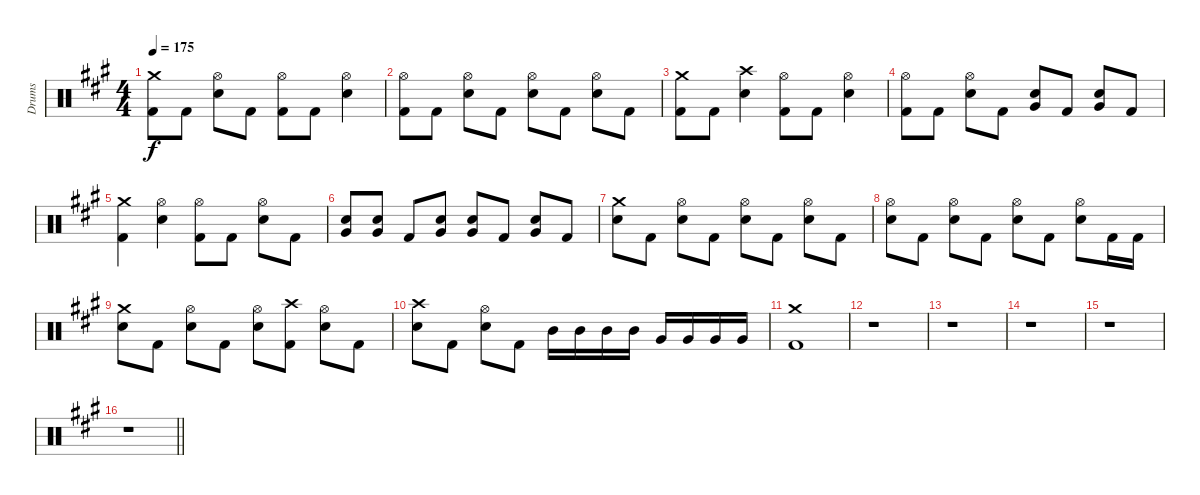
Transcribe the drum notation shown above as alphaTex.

\track ("Drums" "Drums") {instrument percussion}
\staff {score}
\articulation defaults
\ts (4 4)
\tempo 175
\clef neutral
\ks f#minor
("Crash medium (hit)" "Kick (hit) 2").8{dy f} "Kick (hit) 2".8 ("Hi-Hat (open)" "Electric Snare (hit)").8 "Kick (hit) 2".8 ("Hi-Hat (open)" "Kick (hit) 2").8 "Kick (hit) 2".8 ("Hi-Hat (open)" "Electric Snare (hit)").4 |
("Hi-Hat (open)" "Kick (hit) 2").8 "Kick (hit) 2".8 ("Hi-Hat (open)" "Electric Snare (hit)").8 "Kick (hit) 2".8 ("Hi-Hat (open)" "Electric Snare (hit)").8 "Kick (hit) 2".8 ("Hi-Hat (open)" "Electric Snare (hit)").8 "Kick (hit) 2".8 |
("Crash medium (hit)" "Kick (hit) 2").8 "Kick (hit) 2".8 ("Crash high (hit)" "Electric Snare (hit)").4 ("Hi-Hat (open)" "Kick (hit) 2").8 "Kick (hit) 2".8 ("Hi-Hat (open)" "Electric Snare (hit)").4 |
("Hi-Hat (open)" "Kick (hit) 2").8 "Kick (hit) 2".8 ("Hi-Hat (open)" "Electric Snare (hit)").8 "Kick (hit) 2".8 ("Electric Snare (hit)" "Very Low Tom (hit)").8 "Kick (hit) 2".8 ("Electric Snare (hit)" "Very Low Tom (hit)").8 "Kick (hit) 2".8 |
("Crash medium (hit)" "Kick (hit) 2").4 ("Hi-Hat (open)" "Electric Snare (hit)").4 ("Hi-Hat (open)" "Kick (hit) 2").8 "Kick (hit) 2".8 ("Hi-Hat (open)" "Electric Snare (hit)").8 "Kick (hit) 2".8 |
("Electric Snare (hit)" "Very Low Tom (hit)").8 ("Electric Snare (hit)" "Very Low Tom (hit)").8 "Kick (hit) 2".8 ("Electric Snare (hit)" "Very Low Tom (hit)").8 ("Electric Snare (hit)" "Very Low Tom (hit)").8 "Kick (hit) 2".8 ("Electric Snare (hit)" "Very Low Tom (hit)").8 "Kick (hit) 2".8 |
("Crash medium (hit)" "Electric Snare (hit)").8 "Kick (hit) 2".8 ("Hi-Hat (open)" "Electric Snare (hit)").8 "Kick (hit) 2".8 ("Hi-Hat (open)" "Electric Snare (hit)").8 "Kick (hit) 2".8 ("Hi-Hat (open)" "Electric Snare (hit)").8 "Kick (hit) 2".8 |
("Hi-Hat (open)" "Electric Snare (hit)").8 "Kick (hit) 2".8 ("Hi-Hat (open)" "Electric Snare (hit)").8 "Kick (hit) 2".8 ("Hi-Hat (open)" "Electric Snare (hit)").8 "Kick (hit) 2".8 ("Hi-Hat (open)" "Electric Snare (hit)").8 "Kick (hit) 2".16 "Kick (hit) 2".16 |
("Crash medium (hit)" "Electric Snare (hit)").8 "Kick (hit) 2".8 ("Hi-Hat (open)" "Electric Snare (hit)").8 "Kick (hit) 2".8 ("Hi-Hat (open)" "Electric Snare (hit)").8 ("Crash high (hit)" "Kick (hit) 2").8 ("Hi-Hat (open)" "Electric Snare (hit)").8 "Kick (hit) 2".8 |
("Crash high (hit)" "Electric Snare (hit)").8 "Kick (hit) 2".8 ("Hi-Hat (open)" "Electric Snare (hit)").8 "Kick (hit) 2".8 "Mid Tom (hit)".16 "Mid Tom (hit)".16 "Mid Tom (hit)".16 "Mid Tom (hit)".16 "Very Low Tom (hit)".16 "Very Low Tom (hit)".16 "Very Low Tom (hit)".16 "Very Low Tom (hit)".16 |
("Crash medium (hit)" "Kick (hit) 2").1 |
r.1 |
r.1 |
r.1 |
r.1 |
\barLineRight lightlight
r.1
